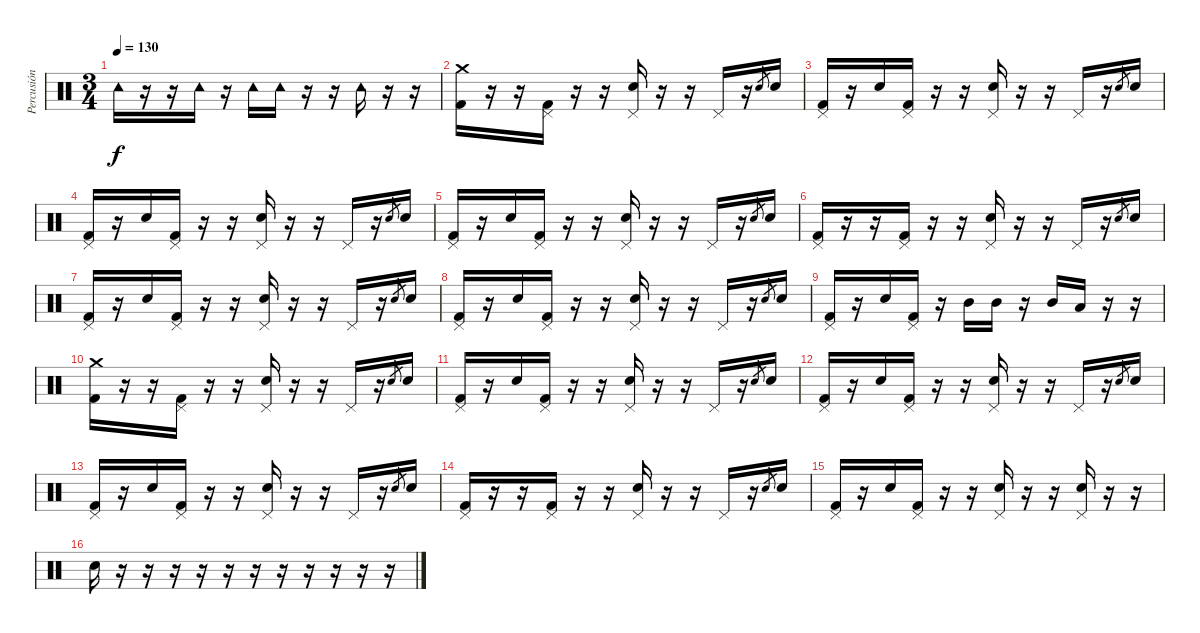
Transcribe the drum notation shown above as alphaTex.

\track ("Percusión" "Percusión") {instrument percussion}
\staff {score}
\articulation defaults
\ts (3 4)
\tempo 130
\clef neutral
\ks c "Tambourine (hit)".16{dy f}
r.16 r.16 "Tambourine (hit)".16 r.16 "Tambourine (hit)".16 "Tambourine (hit)".16 r.16 r.16 "Tambourine (hit)".16 r.16 r.16 |
("Crash medium (hit)" "Kick (hit) 2").16 r.16 r.16 ("Pedal Hi-Hat (hit)" "Kick (hit) 2").16 r.16 r.16 ("Pedal Hi-Hat (hit)" "Electric Snare (hit)").16 r.16 r.16 "Pedal Hi-Hat (hit)".16 r.16 "Electric Snare (hit)".8{gr} "Electric Snare (hit)".16 |
("Pedal Hi-Hat (hit)" "Kick (hit) 2").16 r.16 "Electric Snare (hit)".16 ("Pedal Hi-Hat (hit)" "Kick (hit) 2").16 r.16 r.16 ("Pedal Hi-Hat (hit)" "Electric Snare (hit)").16 r.16 r.16 "Pedal Hi-Hat (hit)".16 r.16 "Electric Snare (hit)".8{gr} "Electric Snare (hit)".16 |
("Pedal Hi-Hat (hit)" "Kick (hit) 2").16 r.16 "Electric Snare (hit)".16 ("Pedal Hi-Hat (hit)" "Kick (hit) 2").16 r.16 r.16 ("Pedal Hi-Hat (hit)" "Electric Snare (hit)").16 r.16 r.16 "Pedal Hi-Hat (hit)".16 r.16 "Electric Snare (hit)".8{gr} "Electric Snare (hit)".16 |
("Pedal Hi-Hat (hit)" "Kick (hit) 2").16 r.16 "Electric Snare (hit)".16 ("Pedal Hi-Hat (hit)" "Kick (hit) 2").16 r.16 r.16 ("Pedal Hi-Hat (hit)" "Electric Snare (hit)").16 r.16 r.16 "Pedal Hi-Hat (hit)".16 r.16 "Electric Snare (hit)".8{gr} "Electric Snare (hit)".16 |
("Pedal Hi-Hat (hit)" "Kick (hit) 2").16 r.16 r.16 ("Pedal Hi-Hat (hit)" "Kick (hit) 2").16 r.16 r.16 ("Pedal Hi-Hat (hit)" "Electric Snare (hit)").16 r.16 r.16 "Pedal Hi-Hat (hit)".16 r.16 "Electric Snare (hit)".8{gr} "Electric Snare (hit)".16 |
("Pedal Hi-Hat (hit)" "Kick (hit) 2").16 r.16 "Electric Snare (hit)".16 ("Pedal Hi-Hat (hit)" "Kick (hit) 2").16 r.16 r.16 ("Pedal Hi-Hat (hit)" "Electric Snare (hit)").16 r.16 r.16 "Pedal Hi-Hat (hit)".16 r.16 "Electric Snare (hit)".8{gr} "Electric Snare (hit)".16 |
("Pedal Hi-Hat (hit)" "Kick (hit) 2").16 r.16 "Electric Snare (hit)".16 ("Pedal Hi-Hat (hit)" "Kick (hit) 2").16 r.16 r.16 ("Pedal Hi-Hat (hit)" "Electric Snare (hit)").16 r.16 r.16 "Pedal Hi-Hat (hit)".16 r.16 "Electric Snare (hit)".8{gr} "Electric Snare (hit)".16 |
("Pedal Hi-Hat (hit)" "Kick (hit) 2").16 r.16 "Electric Snare (hit)".16 ("Pedal Hi-Hat (hit)" "Kick (hit) 2").16 r.16 "Mid Tom (hit)".16 "Mid Tom (hit)".16 r.16 "Mid Tom (hit)".16 "Low Tom (hit)".16 r.16 r.16 |
("Crash medium (hit)" "Kick (hit) 2").16 r.16 r.16 ("Pedal Hi-Hat (hit)" "Kick (hit) 2").16 r.16 r.16 ("Pedal Hi-Hat (hit)" "Electric Snare (hit)").16 r.16 r.16 "Pedal Hi-Hat (hit)".16 r.16 "Electric Snare (hit)".8{gr} "Electric Snare (hit)".16 |
("Pedal Hi-Hat (hit)" "Kick (hit) 2").16 r.16 "Electric Snare (hit)".16 ("Pedal Hi-Hat (hit)" "Kick (hit) 2").16 r.16 r.16 ("Pedal Hi-Hat (hit)" "Electric Snare (hit)").16 r.16 r.16 "Pedal Hi-Hat (hit)".16 r.16 "Electric Snare (hit)".8{gr} "Electric Snare (hit)".16 |
("Pedal Hi-Hat (hit)" "Kick (hit) 2").16 r.16 "Electric Snare (hit)".16 ("Pedal Hi-Hat (hit)" "Kick (hit) 2").16 r.16 r.16 ("Pedal Hi-Hat (hit)" "Electric Snare (hit)").16 r.16 r.16 "Pedal Hi-Hat (hit)".16 r.16 "Electric Snare (hit)".8{gr} "Electric Snare (hit)".16 |
("Pedal Hi-Hat (hit)" "Kick (hit) 2").16 r.16 "Electric Snare (hit)".16 ("Pedal Hi-Hat (hit)" "Kick (hit) 2").16 r.16 r.16 ("Pedal Hi-Hat (hit)" "Electric Snare (hit)").16 r.16 r.16 "Pedal Hi-Hat (hit)".16 r.16 "Electric Snare (hit)".8{gr} "Electric Snare (hit)".16 |
("Pedal Hi-Hat (hit)" "Kick (hit) 2").16 r.16 r.16 ("Pedal Hi-Hat (hit)" "Kick (hit) 2").16 r.16 r.16 ("Pedal Hi-Hat (hit)" "Electric Snare (hit)").16 r.16 r.16 "Pedal Hi-Hat (hit)".16 r.16 "Electric Snare (hit)".8{gr} "Electric Snare (hit)".16 |
("Pedal Hi-Hat (hit)" "Kick (hit) 2").16 r.16 "Electric Snare (hit)".16 ("Pedal Hi-Hat (hit)" "Kick (hit) 2").16 r.16 r.16 ("Pedal Hi-Hat (hit)" "Electric Snare (hit)").16 r.16 r.16 ("Pedal Hi-Hat (hit)" "Electric Snare (hit)").16 r.16 r.16 |
"Electric Snare (hit)".16 r.16 r.16 r.16 r.16 r.16 r.16 r.16 r.16 r.16 r.16 r.16
